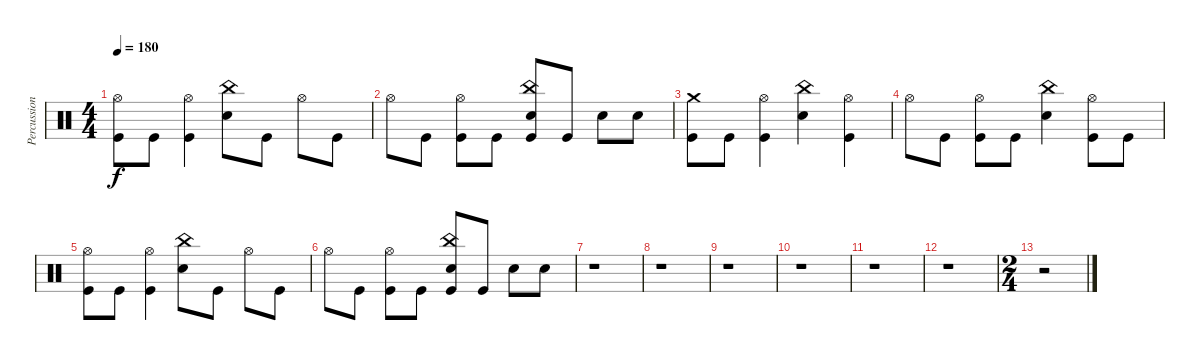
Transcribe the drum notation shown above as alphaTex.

\track ("Percussion" "Percussion") {instrument percussion}
\staff {score}
\articulation defaults
\ts (4 4)
\tempo 180
\clef neutral
\ks c
("Hi-Hat (open)" "Kick (hit)").8{dy f} "Kick (hit)".8 ("Hi-Hat (open)" "Kick (hit)").4 ("China (hit)" "Electric Snare (hit)").8 "Kick (hit)".8 "Hi-Hat (open)".8 "Kick (hit)".8 |
"Hi-Hat (open)".8 "Kick (hit)".8 ("Hi-Hat (open)" "Kick (hit)").8 "Kick (hit)".8 ("China (hit)" "Electric Snare (hit)" "Kick (hit)").8 "Kick (hit)".8 "Electric Snare (hit)".8 "Electric Snare (hit)".8 |
("Crash medium (hit)" "Kick (hit)").8 "Kick (hit)".8 ("Hi-Hat (open)" "Kick (hit)").4 ("China (hit)" "Electric Snare (hit)").4 ("Hi-Hat (open)" "Kick (hit)").4 |
"Hi-Hat (open)".8 "Kick (hit)".8 ("Hi-Hat (open)" "Kick (hit)").8 "Kick (hit)".8 ("China (hit)" "Electric Snare (hit)").4 ("Hi-Hat (open)" "Kick (hit)").8 "Kick (hit)".8 |
("Hi-Hat (open)" "Kick (hit)").8 "Kick (hit)".8 ("Hi-Hat (open)" "Kick (hit)").4 ("China (hit)" "Electric Snare (hit)").8 "Kick (hit)".8 "Hi-Hat (open)".8 "Kick (hit)".8 |
"Hi-Hat (open)".8 "Kick (hit)".8 ("Hi-Hat (open)" "Kick (hit)").8 "Kick (hit)".8 ("China (hit)" "Electric Snare (hit)" "Kick (hit)").8 "Kick (hit)".8 "Electric Snare (hit)".8 "Electric Snare (hit)".8 |
r.1 |
r.1 |
r.1 |
r.1 |
r.1 |
r.1 |
\ts (2 4)
r.2
